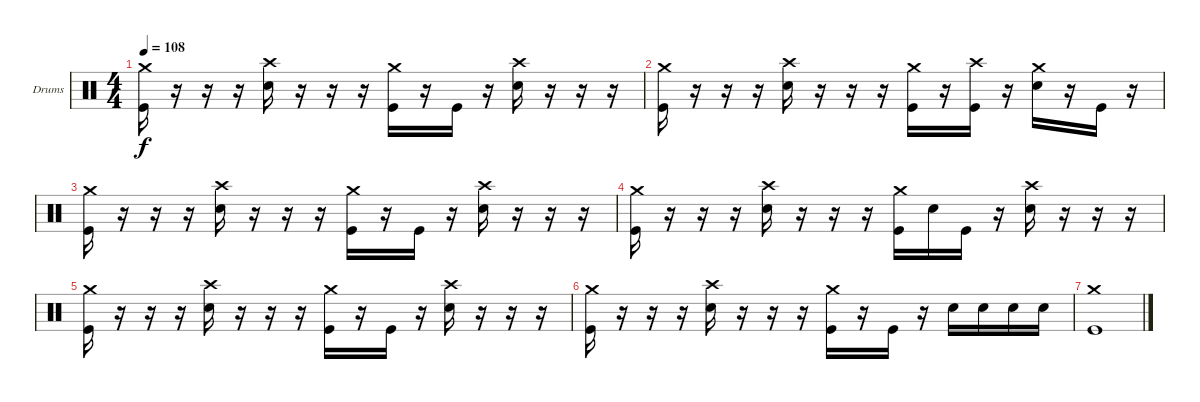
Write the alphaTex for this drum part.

\bracketExtendMode groupsimilarinstruments
\firstSystemTrackNameOrientation horizontal
\otherSystemsTrackNameOrientation horizontal
\track ("Drumkit" "Drums") {instrument percussion}
\staff {score}
\articulation defaults
\ts (4 4)
\tempo 108
\clef neutral
\ks c
("Kick (hit)" "Crash medium (hit)").16{dy f} r.16 r.16 r.16 ("Snare (hit) 2" "Crash high (hit)").16 r.16 r.16 r.16 ("Kick (hit)" "Crash medium (hit)").16 r.16 "Kick (hit)".16 r.16 ("Snare (hit) 2" "Crash high (hit)").16 r.16 r.16 r.16 |
("Kick (hit)" "Crash medium (hit)").16 r.16 r.16 r.16 ("Snare (hit) 2" "Crash high (hit)").16 r.16 r.16 r.16 ("Kick (hit)" "Crash medium (hit)").16 r.16 ("Kick (hit)" "Crash high (hit)").16 r.16 ("Snare (hit) 2" "Crash medium (hit)").16 r.16 "Kick (hit)".16 r.16 |
("Kick (hit)" "Crash medium (hit)").16 r.16 r.16 r.16 ("Snare (hit) 2" "Crash high (hit)").16 r.16 r.16 r.16 ("Kick (hit)" "Crash medium (hit)").16 r.16 "Kick (hit)".16 r.16 ("Snare (hit) 2" "Crash high (hit)").16 r.16 r.16 r.16 |
("Kick (hit)" "Crash medium (hit)").16 r.16 r.16 r.16 ("Snare (hit) 2" "Crash high (hit)").16 r.16 r.16 r.16 ("Kick (hit)" "Crash medium (hit)").16 "Snare (hit) 2".16 "Kick (hit)".16 r.16 ("Snare (hit) 2" "Crash high (hit)").16 r.16 r.16 r.16 |
("Kick (hit)" "Crash medium (hit)").16 r.16 r.16 r.16 ("Snare (hit) 2" "Crash high (hit)").16 r.16 r.16 r.16 ("Kick (hit)" "Crash medium (hit)").16 r.16 "Kick (hit)".16 r.16 ("Snare (hit) 2" "Crash high (hit)").16 r.16 r.16 r.16 |
("Kick (hit)" "Crash medium (hit)").16 r.16 r.16 r.16 ("Snare (hit) 2" "Crash high (hit)").16 r.16 r.16 r.16 ("Kick (hit)" "Crash medium (hit)").16 r.16 "Kick (hit)".16 r.16 "Snare (hit) 2".16 "Snare (hit) 2".16 "Snare (hit) 2".16 "Snare (hit) 2".16 |
("Kick (hit)" "Crash medium (hit)").1
